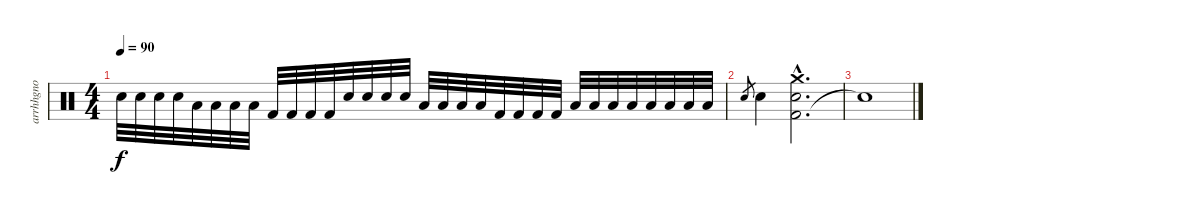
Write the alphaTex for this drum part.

\track ("arrhhgno" "arrhhgno") {instrument percussion}
\staff {score}
\articulation defaults
\ts (4 4)
\tempo 90
\clef neutral
\ks c "Electric Snare (hit)".32{dy f} "Electric Snare (hit)".32 "Electric Snare (hit)".32 "Electric Snare (hit)".32 "Low Tom (hit)".32 "Low Tom (hit)".32 "Low Tom (hit)".32 "Low Tom (hit)".32 "Kick (hit) 2".32 "Kick (hit) 2".32 "Kick (hit) 2".32 "Kick (hit) 2".32 "Electric Snare (hit)".32 "Electric Snare (hit)".32 "Electric Snare (hit)".32 "Electric Snare (hit)".32 "Low Tom (hit)".32 "Low Tom (hit)".32 "Low Tom (hit)".32 "Low Tom (hit)".32 "Kick (hit) 2".32 "Kick (hit) 2".32 "Kick (hit) 2".32 "Kick (hit) 2".32 "Low Tom (hit)".32 "Low Tom (hit)".32 "Low Tom (hit)".32 "Low Tom (hit)".32 "Low Tom (hit)".32 "Low Tom (hit)".32 "Low Tom (hit)".32 "Low Tom (hit)".32
|
"Electric Snare (hit)".8{gr} "Electric Snare (hit)".4 ("Kick (hit) 2"{hac} "Crash medium (hit)"{hac} "Electric Snare (hit)"{hac}).2{d} |
"Snare (hit)"{t}.1
